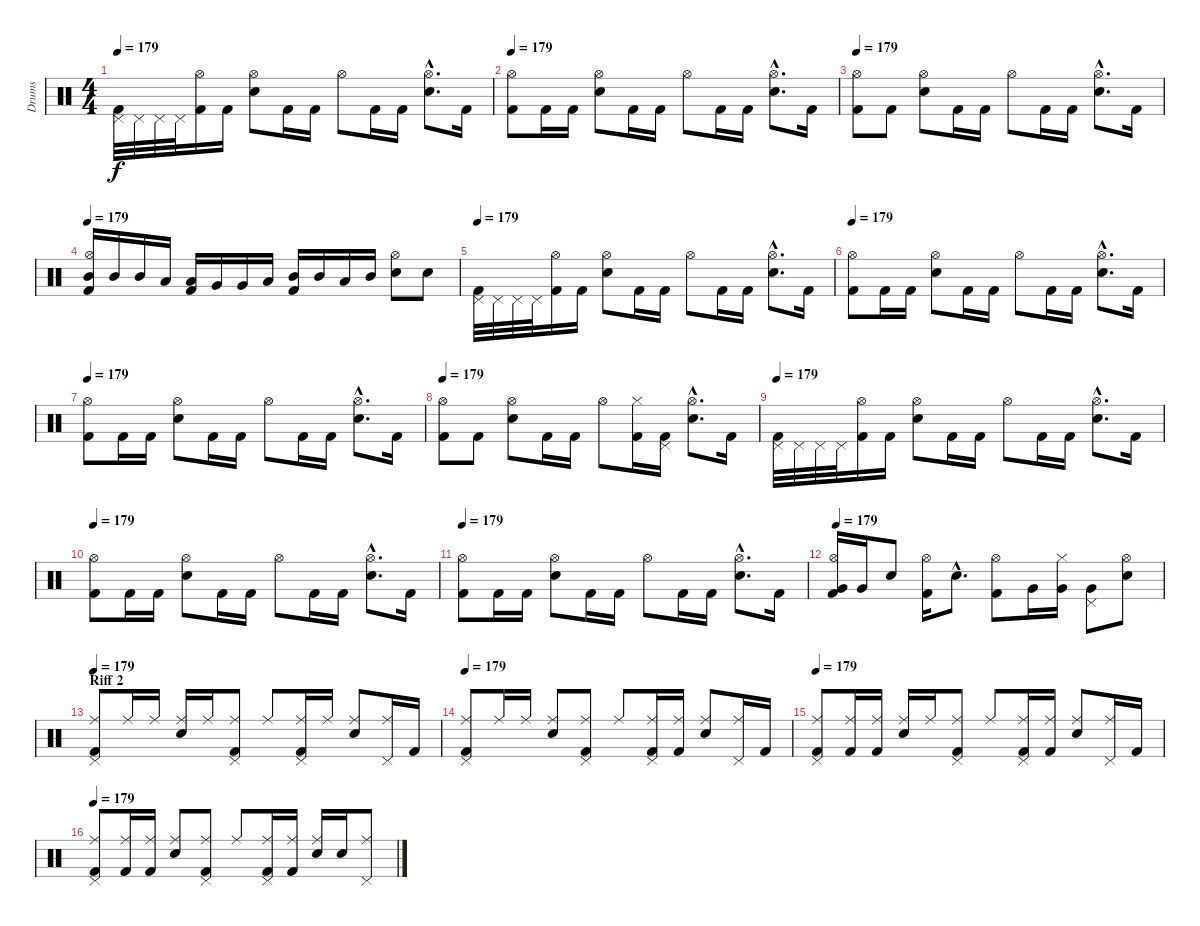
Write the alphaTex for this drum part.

\track ("Drums" "Drums") {instrument percussion}
\staff {score}
\articulation defaults
\ts (4 4)
\tempo 179
\clef neutral
\ks c
("Pedal Hi-Hat (hit)" "Kick (hit) 2").32{dy f} "Pedal Hi-Hat (hit)".32 "Pedal Hi-Hat (hit)".32 "Pedal Hi-Hat (hit)".32 ("Hi-Hat (open)" "Kick (hit) 2").16 "Kick (hit) 2".16 ("Hi-Hat (open)" "Electric Snare (hit)").8 "Kick (hit) 2".16 "Kick (hit) 2".16 "Hi-Hat (open)".8 "Kick (hit) 2".16 "Kick (hit) 2".16 ("Hi-Hat (open)"{hac} "Electric Snare (hit)"{hac}).8{d} "Kick (hit) 2".16 |
\tempo 179
("Hi-Hat (open)" "Kick (hit) 2").8 "Kick (hit) 2".16 "Kick (hit) 2".16 ("Hi-Hat (open)" "Electric Snare (hit)").8 "Kick (hit) 2".16 "Kick (hit) 2".16 "Hi-Hat (open)".8 "Kick (hit) 2".16 "Kick (hit) 2".16 ("Hi-Hat (open)"{hac} "Electric Snare (hit)"{hac}).8{d} "Kick (hit) 2".16 |
\tempo 179
("Hi-Hat (open)" "Kick (hit) 2").8 "Kick (hit) 2".8 ("Hi-Hat (open)" "Electric Snare (hit)").8 "Kick (hit) 2".16 "Kick (hit) 2".16 "Hi-Hat (open)".8 "Kick (hit) 2".16 "Kick (hit) 2".16 ("Hi-Hat (open)"{hac} "Electric Snare (hit)"{hac}).8{d} "Kick (hit) 2".16 |
\tempo 179
("Hi-Hat (open)" "Mid Tom (hit)" "Kick (hit) 2").16 "Mid Tom (hit)".16 "Mid Tom (hit)".16 "Low Tom (hit)".16 ("Low Tom (hit)" "Kick (hit) 2").16 "Very Low Tom (hit)".16 "Very Low Tom (hit)".16 "Low Tom (hit)".16 ("Mid Tom (hit)" "Kick (hit) 2").16 "Mid Tom (hit)".16 "Low Tom (hit)".16 "Mid Tom (hit)".16 ("Hi-Hat (open)" "Electric Snare (hit)").8 "Electric Snare (hit)".8 |
\tempo 179
("Pedal Hi-Hat (hit)" "Kick (hit) 2").32 "Pedal Hi-Hat (hit)".32 "Pedal Hi-Hat (hit)".32 "Pedal Hi-Hat (hit)".32 ("Hi-Hat (open)" "Kick (hit) 2").16 "Kick (hit) 2".16 ("Hi-Hat (open)" "Electric Snare (hit)").8 "Kick (hit) 2".16 "Kick (hit) 2".16 "Hi-Hat (open)".8 "Kick (hit) 2".16 "Kick (hit) 2".16 ("Hi-Hat (open)"{hac} "Electric Snare (hit)"{hac}).8{d} "Kick (hit) 2".16 |
\tempo 179
("Hi-Hat (open)" "Kick (hit) 2").8 "Kick (hit) 2".16 "Kick (hit) 2".16 ("Hi-Hat (open)" "Electric Snare (hit)").8 "Kick (hit) 2".16 "Kick (hit) 2".16 "Hi-Hat (open)".8 "Kick (hit) 2".16 "Kick (hit) 2".16 ("Hi-Hat (open)"{hac} "Electric Snare (hit)"{hac}).8{d} "Kick (hit) 2".16 |
\tempo 179
("Hi-Hat (open)" "Kick (hit) 2").8 "Kick (hit) 2".16 "Kick (hit) 2".16 ("Hi-Hat (open)" "Electric Snare (hit)").8 "Kick (hit) 2".16 "Kick (hit) 2".16 "Hi-Hat (open)".8 "Kick (hit) 2".16 "Kick (hit) 2".16 ("Hi-Hat (open)"{hac} "Electric Snare (hit)"{hac}).8{d} "Kick (hit) 2".16 |
\tempo 179
("Hi-Hat (open)" "Kick (hit) 2").8 "Kick (hit) 2".8 ("Hi-Hat (open)" "Electric Snare (hit)").8 "Kick (hit) 2".16 "Kick (hit) 2".16 "Hi-Hat (open)".8 ("Hi-Hat (closed)" "Kick (hit) 2").16 ("Pedal Hi-Hat (hit)" "Kick (hit) 2").16 ("Hi-Hat (open)"{hac} "Electric Snare (hit)"{hac}).8{d} "Kick (hit) 2".16 |
\tempo 179
("Pedal Hi-Hat (hit)" "Kick (hit) 2").32 "Pedal Hi-Hat (hit)".32 "Pedal Hi-Hat (hit)".32 "Pedal Hi-Hat (hit)".32 ("Hi-Hat (open)" "Kick (hit) 2").16 "Kick (hit) 2".16 ("Hi-Hat (open)" "Electric Snare (hit)").8 "Kick (hit) 2".16 "Kick (hit) 2".16 "Hi-Hat (open)".8 "Kick (hit) 2".16 "Kick (hit) 2".16 ("Hi-Hat (open)"{hac} "Electric Snare (hit)"{hac}).8{d} "Kick (hit) 2".16 |
\tempo 179
("Hi-Hat (open)" "Kick (hit) 2").8 "Kick (hit) 2".16 "Kick (hit) 2".16 ("Hi-Hat (open)" "Electric Snare (hit)").8 "Kick (hit) 2".16 "Kick (hit) 2".16 "Hi-Hat (open)".8 "Kick (hit) 2".16 "Kick (hit) 2".16 ("Hi-Hat (open)"{hac} "Electric Snare (hit)"{hac}).8{d} "Kick (hit) 2".16 |
\tempo 179
("Hi-Hat (open)" "Kick (hit) 2").8 "Kick (hit) 2".16 "Kick (hit) 2".16 ("Hi-Hat (open)" "Electric Snare (hit)").8 "Kick (hit) 2".16 "Kick (hit) 2".16 "Hi-Hat (open)".8 "Kick (hit) 2".16 "Kick (hit) 2".16 ("Hi-Hat (open)"{hac} "Electric Snare (hit)"{hac}).8{d} "Kick (hit) 2".16 |
\tempo 179
("Hi-Hat (open)" "Very Low Tom (hit)" "Kick (hit) 2").16 "Very Low Tom (hit)".16 "Electric Snare (hit)".8 ("Hi-Hat (open)" "Kick (hit) 2").16 "Electric Snare (hit)"{hac}.8{d} ("Hi-Hat (open)" "Kick (hit) 2").8 "Very Low Tom (hit)".16 ("Hi-Hat (closed)" "Very Low Tom (hit)").16 ("Pedal Hi-Hat (hit)" "Very Low Tom (hit)").8 ("Hi-Hat (open)" "Electric Snare (hit)").8 |
\section ("" "Riff 2")
\tempo 179
("Pedal Hi-Hat (hit)" "Ride (middle)" "Kick (hit) 2").8 "Ride (middle)".16 "Ride (middle)".16 ("Ride (middle)" "Electric Snare (hit)").16 "Ride (middle)".16 ("Pedal Hi-Hat (hit)" "Ride (middle)" "Kick (hit) 2").8 "Ride (middle)".8 ("Pedal Hi-Hat (hit)" "Ride (middle)" "Kick (hit) 2").16 "Ride (middle)".16 ("Ride (middle)" "Electric Snare (hit)").8 ("Pedal Hi-Hat (hit)" "Ride (middle)").16 "Kick (hit) 2".16 |
\tempo 179
("Pedal Hi-Hat (hit)" "Ride (middle)" "Kick (hit) 2").8 "Ride (middle)".16 "Ride (middle)".16 ("Ride (middle)" "Electric Snare (hit)").8 ("Pedal Hi-Hat (hit)" "Ride (middle)" "Kick (hit) 2").8 "Ride (middle)".8 ("Pedal Hi-Hat (hit)" "Ride (middle)" "Kick (hit) 2").16 ("Ride (middle)" "Kick (hit) 2").16 ("Ride (middle)" "Electric Snare (hit)").8 ("Pedal Hi-Hat (hit)" "Ride (middle)").16 "Kick (hit) 2".16 |
\tempo 179
("Pedal Hi-Hat (hit)" "Ride (middle)" "Kick (hit) 2").8 ("Ride (middle)" "Kick (hit) 2").16 ("Ride (middle)" "Kick (hit) 2").16 ("Ride (middle)" "Electric Snare (hit)").16 "Ride (middle)".16 ("Pedal Hi-Hat (hit)" "Ride (middle)" "Kick (hit) 2").8 "Ride (middle)".8 ("Pedal Hi-Hat (hit)" "Ride (middle)" "Kick (hit) 2").16 ("Ride (middle)" "Kick (hit) 2").16 ("Ride (middle)" "Electric Snare (hit)").8 ("Pedal Hi-Hat (hit)" "Ride (middle)").16 "Kick (hit) 2".16 |
\tempo 179
("Pedal Hi-Hat (hit)" "Ride (middle)" "Kick (hit) 2").8 ("Ride (middle)" "Kick (hit) 2").16 ("Ride (middle)" "Kick (hit) 2").16 ("Ride (middle)" "Electric Snare (hit)").8 ("Pedal Hi-Hat (hit)" "Ride (middle)" "Kick (hit) 2").8 "Ride (middle)".8 ("Pedal Hi-Hat (hit)" "Ride (middle)" "Kick (hit) 2").16 ("Ride (middle)" "Kick (hit) 2").16 ("Ride (middle)" "Electric Snare (hit)").16 "Electric Snare (hit)".16 ("Pedal Hi-Hat (hit)" "Ride (middle)").8
